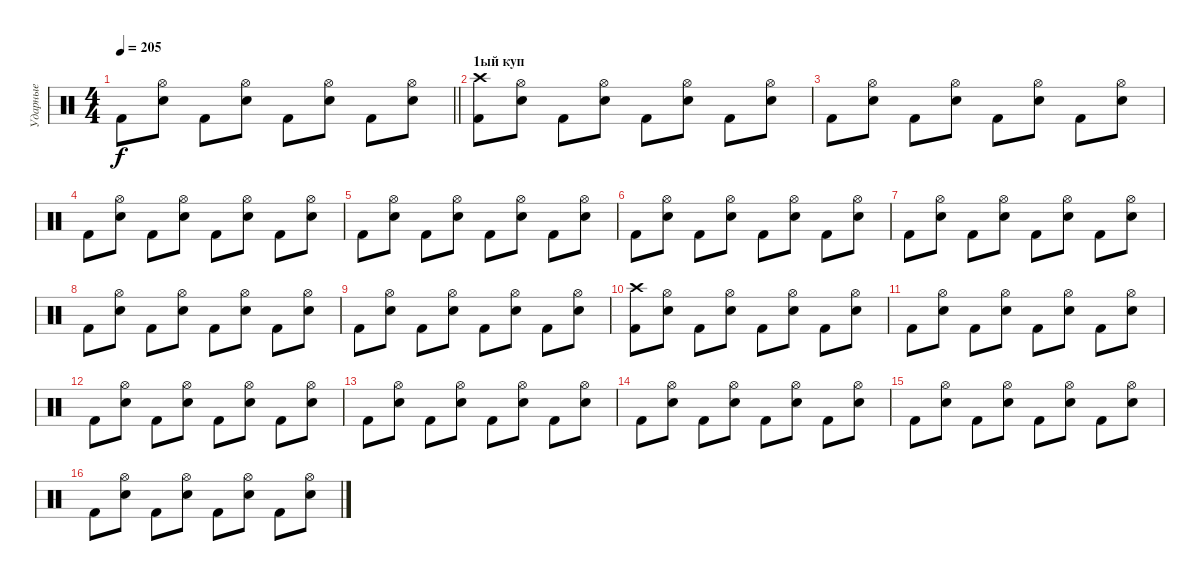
\track ("Ударные" "Ударные") {instrument percussion}
\staff {score}
\articulation defaults
\ts (4 4)
\tempo 205
\clef neutral
\barLineRight lightlight
\ks c "Kick (hit) 2".8{dy f}
("Hi-Hat (open)" "Electric Snare (hit)").8 "Kick (hit) 2".8 ("Hi-Hat (open)" "Electric Snare (hit)").8 "Kick (hit) 2".8 ("Hi-Hat (open)" "Electric Snare (hit)").8 "Kick (hit) 2".8 ("Hi-Hat (open)" "Electric Snare (hit)").8 |
\section ("" "1ый куп")
("Crash high (hit)" "Kick (hit) 2").8 ("Hi-Hat (open)" "Electric Snare (hit)").8 "Kick (hit) 2".8 ("Hi-Hat (open)" "Electric Snare (hit)").8 "Kick (hit) 2".8 ("Hi-Hat (open)" "Electric Snare (hit)").8 "Kick (hit) 2".8 ("Hi-Hat (open)" "Electric Snare (hit)").8 |
"Kick (hit) 2".8 ("Hi-Hat (open)" "Electric Snare (hit)").8 "Kick (hit) 2".8 ("Hi-Hat (open)" "Electric Snare (hit)").8 "Kick (hit) 2".8 ("Hi-Hat (open)" "Electric Snare (hit)").8 "Kick (hit) 2".8 ("Hi-Hat (open)" "Electric Snare (hit)").8 |
"Kick (hit) 2".8 ("Hi-Hat (open)" "Electric Snare (hit)").8 "Kick (hit) 2".8 ("Hi-Hat (open)" "Electric Snare (hit)").8 "Kick (hit) 2".8 ("Hi-Hat (open)" "Electric Snare (hit)").8 "Kick (hit) 2".8 ("Hi-Hat (open)" "Electric Snare (hit)").8 |
"Kick (hit) 2".8 ("Hi-Hat (open)" "Electric Snare (hit)").8 "Kick (hit) 2".8 ("Hi-Hat (open)" "Electric Snare (hit)").8 "Kick (hit) 2".8 ("Hi-Hat (open)" "Electric Snare (hit)").8 "Kick (hit) 2".8 ("Hi-Hat (open)" "Electric Snare (hit)").8 |
"Kick (hit) 2".8 ("Hi-Hat (open)" "Electric Snare (hit)").8 "Kick (hit) 2".8 ("Hi-Hat (open)" "Electric Snare (hit)").8 "Kick (hit) 2".8 ("Hi-Hat (open)" "Electric Snare (hit)").8 "Kick (hit) 2".8 ("Hi-Hat (open)" "Electric Snare (hit)").8 |
"Kick (hit) 2".8 ("Hi-Hat (open)" "Electric Snare (hit)").8 "Kick (hit) 2".8 ("Hi-Hat (open)" "Electric Snare (hit)").8 "Kick (hit) 2".8 ("Hi-Hat (open)" "Electric Snare (hit)").8 "Kick (hit) 2".8 ("Hi-Hat (open)" "Electric Snare (hit)").8 |
"Kick (hit) 2".8 ("Hi-Hat (open)" "Electric Snare (hit)").8 "Kick (hit) 2".8 ("Hi-Hat (open)" "Electric Snare (hit)").8 "Kick (hit) 2".8 ("Hi-Hat (open)" "Electric Snare (hit)").8 "Kick (hit) 2".8 ("Hi-Hat (open)" "Electric Snare (hit)").8 |
"Kick (hit) 2".8 ("Hi-Hat (open)" "Electric Snare (hit)").8 "Kick (hit) 2".8 ("Hi-Hat (open)" "Electric Snare (hit)").8 "Kick (hit) 2".8 ("Hi-Hat (open)" "Electric Snare (hit)").8 "Kick (hit) 2".8 ("Hi-Hat (open)" "Electric Snare (hit)").8 |
("Crash high (hit)" "Kick (hit) 2").8 ("Hi-Hat (open)" "Electric Snare (hit)").8 "Kick (hit) 2".8 ("Hi-Hat (open)" "Electric Snare (hit)").8 "Kick (hit) 2".8 ("Hi-Hat (open)" "Electric Snare (hit)").8 "Kick (hit) 2".8 ("Hi-Hat (open)" "Electric Snare (hit)").8 |
"Kick (hit) 2".8 ("Hi-Hat (open)" "Electric Snare (hit)").8 "Kick (hit) 2".8 ("Hi-Hat (open)" "Electric Snare (hit)").8 "Kick (hit) 2".8 ("Hi-Hat (open)" "Electric Snare (hit)").8 "Kick (hit) 2".8 ("Hi-Hat (open)" "Electric Snare (hit)").8 |
"Kick (hit) 2".8 ("Hi-Hat (open)" "Electric Snare (hit)").8 "Kick (hit) 2".8 ("Hi-Hat (open)" "Electric Snare (hit)").8 "Kick (hit) 2".8 ("Hi-Hat (open)" "Electric Snare (hit)").8 "Kick (hit) 2".8 ("Hi-Hat (open)" "Electric Snare (hit)").8 |
"Kick (hit) 2".8 ("Hi-Hat (open)" "Electric Snare (hit)").8 "Kick (hit) 2".8 ("Hi-Hat (open)" "Electric Snare (hit)").8 "Kick (hit) 2".8 ("Hi-Hat (open)" "Electric Snare (hit)").8 "Kick (hit) 2".8 ("Hi-Hat (open)" "Electric Snare (hit)").8 |
"Kick (hit) 2".8 ("Hi-Hat (open)" "Electric Snare (hit)").8 "Kick (hit) 2".8 ("Hi-Hat (open)" "Electric Snare (hit)").8 "Kick (hit) 2".8 ("Hi-Hat (open)" "Electric Snare (hit)").8 "Kick (hit) 2".8 ("Hi-Hat (open)" "Electric Snare (hit)").8 |
"Kick (hit) 2".8 ("Hi-Hat (open)" "Electric Snare (hit)").8 "Kick (hit) 2".8 ("Hi-Hat (open)" "Electric Snare (hit)").8 "Kick (hit) 2".8 ("Hi-Hat (open)" "Electric Snare (hit)").8 "Kick (hit) 2".8 ("Hi-Hat (open)" "Electric Snare (hit)").8 |
"Kick (hit) 2".8 ("Hi-Hat (open)" "Electric Snare (hit)").8 "Kick (hit) 2".8 ("Hi-Hat (open)" "Electric Snare (hit)").8 "Kick (hit) 2".8 ("Hi-Hat (open)" "Electric Snare (hit)").8 "Kick (hit) 2".8 ("Hi-Hat (open)" "Electric Snare (hit)").8
